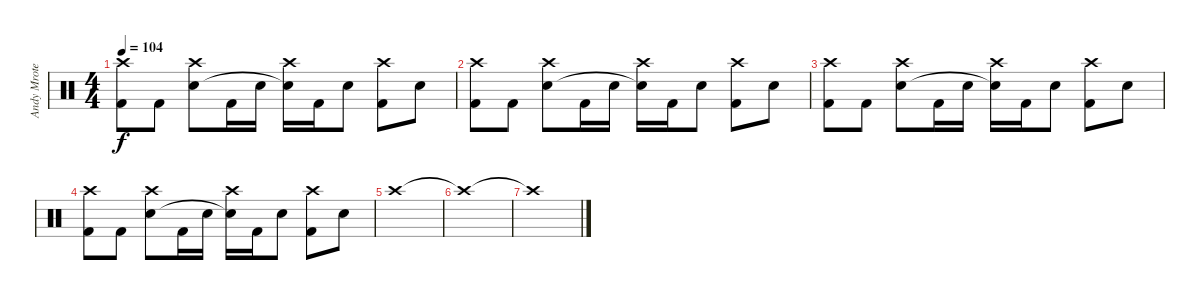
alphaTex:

\track ("Andy Mrotek (Percussion)" "Andy Mrote") {instrument percussion}
\staff {score}
\articulation defaults
\ts (4 4)
\tempo 104
\clef neutral
\ks c
("Crash high (hit)" "Kick (hit) 2").8{dy f} "Kick (hit) 2".8 ("Crash high (hit)" "Snare (hit) 2").8 "Kick (hit) 2".16 "Snare (hit) 2".16 ("Crash high (hit)" "Snare (hit) 2"{t}).16 "Kick (hit) 2".16 "Snare (hit) 2".8 ("Crash high (hit)" "Kick (hit) 2").8 "Snare (hit) 2".8 |
("Crash high (hit)" "Kick (hit) 2").8 "Kick (hit) 2".8 ("Crash high (hit)" "Snare (hit) 2").8 "Kick (hit) 2".16 "Snare (hit) 2".16 ("Crash high (hit)" "Snare (hit) 2"{t}).16 "Kick (hit) 2".16 "Snare (hit) 2".8 ("Crash high (hit)" "Kick (hit) 2").8 "Snare (hit) 2".8 |
("Crash high (hit)" "Kick (hit) 2").8 "Kick (hit) 2".8 ("Crash high (hit)" "Snare (hit) 2").8 "Kick (hit) 2".16 "Snare (hit) 2".16 ("Crash high (hit)" "Snare (hit) 2"{t}).16 "Kick (hit) 2".16 "Snare (hit) 2".8 ("Crash high (hit)" "Kick (hit) 2").8 "Snare (hit) 2".8 |
("Crash high (hit)" "Kick (hit) 2").8 "Kick (hit) 2".8 ("Crash high (hit)" "Snare (hit) 2").8 "Kick (hit) 2".16 "Snare (hit) 2".16 ("Crash high (hit)" "Snare (hit) 2"{t}).16 "Kick (hit) 2".16 "Snare (hit) 2".8 ("Crash high (hit)" "Kick (hit) 2").8 "Snare (hit) 2".8 |
"Crash high (hit)".1 |
"Crash high (hit)"{t}.1 |
"Crash high (hit)"{t}.1
